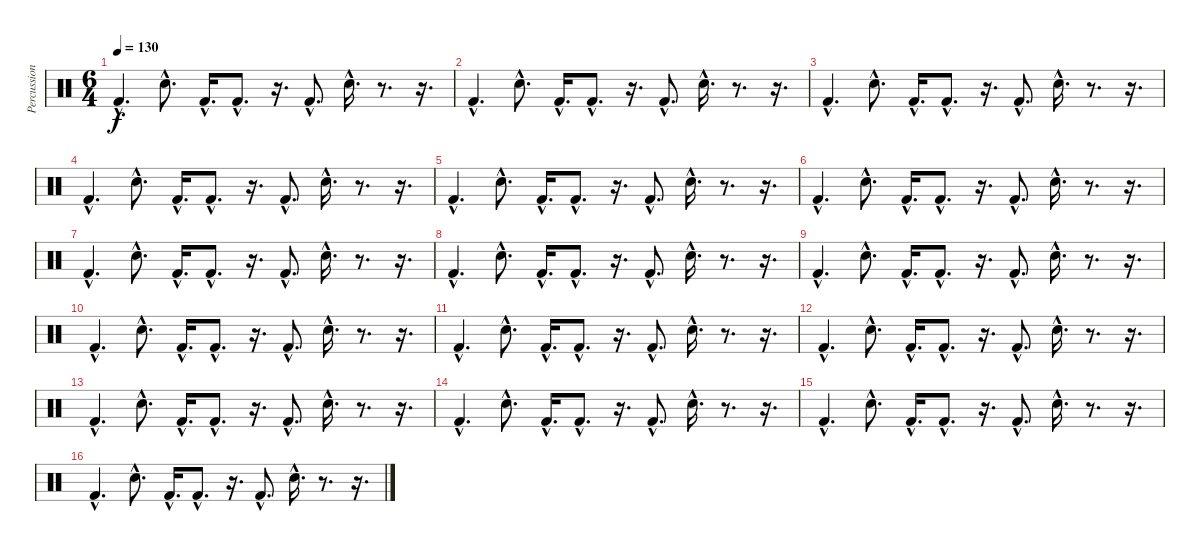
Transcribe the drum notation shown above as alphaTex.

\track ("Percussion" "Percussion") {instrument percussion}
\staff {score}
\articulation defaults
\ts (6 4)
\tempo 130
\clef neutral
\ks c "Kick (hit) 2"{hac}.4{d dy f} "Snare (hit) 2"{hac}.8{d} "Kick (hit) 2"{hac}.16{d} "Kick (hit) 2"{hac}.8{d}
r.16{d} "Kick (hit) 2"{hac}.8{d} "Snare (hit) 2"{hac}.16{d} r.8{d} r.16{d} |
"Kick (hit) 2"{hac}.4{d} "Snare (hit) 2"{hac}.8{d} "Kick (hit) 2"{hac}.16{d} "Kick (hit) 2"{hac}.8{d} r.16{d} "Kick (hit) 2"{hac}.8{d} "Snare (hit) 2"{hac}.16{d} r.8{d} r.16{d} |
"Kick (hit) 2"{hac}.4{d} "Snare (hit) 2"{hac}.8{d} "Kick (hit) 2"{hac}.16{d} "Kick (hit) 2"{hac}.8{d} r.16{d} "Kick (hit) 2"{hac}.8{d} "Snare (hit) 2"{hac}.16{d} r.8{d} r.16{d} |
"Kick (hit) 2"{hac}.4{d} "Snare (hit) 2"{hac}.8{d} "Kick (hit) 2"{hac}.16{d} "Kick (hit) 2"{hac}.8{d} r.16{d} "Kick (hit) 2"{hac}.8{d} "Snare (hit) 2"{hac}.16{d} r.8{d} r.16{d} |
"Kick (hit) 2"{hac}.4{d} "Snare (hit) 2"{hac}.8{d} "Kick (hit) 2"{hac}.16{d} "Kick (hit) 2"{hac}.8{d} r.16{d} "Kick (hit) 2"{hac}.8{d} "Snare (hit) 2"{hac}.16{d} r.8{d} r.16{d} |
"Kick (hit) 2"{hac}.4{d} "Snare (hit) 2"{hac}.8{d} "Kick (hit) 2"{hac}.16{d} "Kick (hit) 2"{hac}.8{d} r.16{d} "Kick (hit) 2"{hac}.8{d} "Snare (hit) 2"{hac}.16{d} r.8{d} r.16{d} |
"Kick (hit) 2"{hac}.4{d} "Snare (hit) 2"{hac}.8{d} "Kick (hit) 2"{hac}.16{d} "Kick (hit) 2"{hac}.8{d} r.16{d} "Kick (hit) 2"{hac}.8{d} "Snare (hit) 2"{hac}.16{d} r.8{d} r.16{d} |
"Kick (hit) 2"{hac}.4{d} "Snare (hit) 2"{hac}.8{d} "Kick (hit) 2"{hac}.16{d} "Kick (hit) 2"{hac}.8{d} r.16{d} "Kick (hit) 2"{hac}.8{d} "Snare (hit) 2"{hac}.16{d} r.8{d} r.16{d} |
"Kick (hit) 2"{hac}.4{d} "Snare (hit) 2"{hac}.8{d} "Kick (hit) 2"{hac}.16{d} "Kick (hit) 2"{hac}.8{d} r.16{d} "Kick (hit) 2"{hac}.8{d} "Snare (hit) 2"{hac}.16{d} r.8{d} r.16{d} |
"Kick (hit) 2"{hac}.4{d} "Snare (hit) 2"{hac}.8{d} "Kick (hit) 2"{hac}.16{d} "Kick (hit) 2"{hac}.8{d} r.16{d} "Kick (hit) 2"{hac}.8{d} "Snare (hit) 2"{hac}.16{d} r.8{d} r.16{d} |
"Kick (hit) 2"{hac}.4{d} "Snare (hit) 2"{hac}.8{d} "Kick (hit) 2"{hac}.16{d} "Kick (hit) 2"{hac}.8{d} r.16{d} "Kick (hit) 2"{hac}.8{d} "Snare (hit) 2"{hac}.16{d} r.8{d} r.16{d} |
"Kick (hit) 2"{hac}.4{d} "Snare (hit) 2"{hac}.8{d} "Kick (hit) 2"{hac}.16{d} "Kick (hit) 2"{hac}.8{d} r.16{d} "Kick (hit) 2"{hac}.8{d} "Snare (hit) 2"{hac}.16{d} r.8{d} r.16{d} |
"Kick (hit) 2"{hac}.4{d} "Snare (hit) 2"{hac}.8{d} "Kick (hit) 2"{hac}.16{d} "Kick (hit) 2"{hac}.8{d} r.16{d} "Kick (hit) 2"{hac}.8{d} "Snare (hit) 2"{hac}.16{d} r.8{d} r.16{d} |
"Kick (hit) 2"{hac}.4{d} "Snare (hit) 2"{hac}.8{d} "Kick (hit) 2"{hac}.16{d} "Kick (hit) 2"{hac}.8{d} r.16{d} "Kick (hit) 2"{hac}.8{d} "Snare (hit) 2"{hac}.16{d} r.8{d} r.16{d} |
"Kick (hit) 2"{hac}.4{d} "Snare (hit) 2"{hac}.8{d} "Kick (hit) 2"{hac}.16{d} "Kick (hit) 2"{hac}.8{d} r.16{d} "Kick (hit) 2"{hac}.8{d} "Snare (hit) 2"{hac}.16{d} r.8{d} r.16{d} |
"Kick (hit) 2"{hac}.4{d} "Snare (hit) 2"{hac}.8{d} "Kick (hit) 2"{hac}.16{d} "Kick (hit) 2"{hac}.8{d} r.16{d} "Kick (hit) 2"{hac}.8{d} "Snare (hit) 2"{hac}.16{d} r.8{d} r.16{d}
